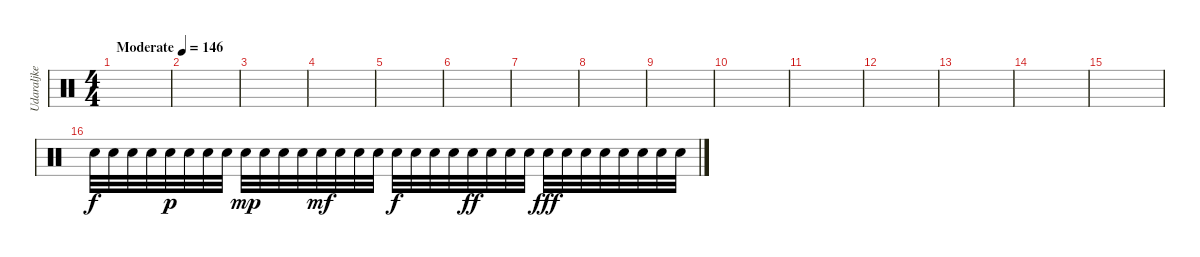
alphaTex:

\track ("Udaraljke" "Udaraljke") {instrument percussion}
\staff {score}
\articulation defaults
\ts (4 4)
\tempo (146 "Moderate")
\clef neutral
\ks c
|
|
|
|
|
|
|
|
|
|
|
|
|
|
|
"Snare (hit) 2".32 "Snare (hit) 2".32 "Snare (hit) 2".32 "Snare (hit) 2".32 "Snare (hit) 2".32{dy p} "Snare (hit) 2".32 "Snare (hit) 2".32 "Snare (hit) 2".32 "Snare (hit) 2".32{dy mp} "Snare (hit) 2".32 "Snare (hit) 2".32 "Snare (hit) 2".32 "Snare (hit) 2".32{dy mf} "Snare (hit) 2".32 "Snare (hit) 2".32 "Snare (hit) 2".32 "Snare (hit) 2".32{dy f} "Snare (hit) 2".32 "Snare (hit) 2".32 "Snare (hit) 2".32 "Snare (hit) 2".32{dy ff} "Snare (hit) 2".32 "Snare (hit) 2".32 "Snare (hit) 2".32 "Snare (hit) 2".32{dy fff} "Snare (hit) 2".32 "Snare (hit) 2".32 "Snare (hit) 2".32 "Snare (hit) 2".32 "Snare (hit) 2".32 "Snare (hit) 2".32 "Snare (hit) 2".32
